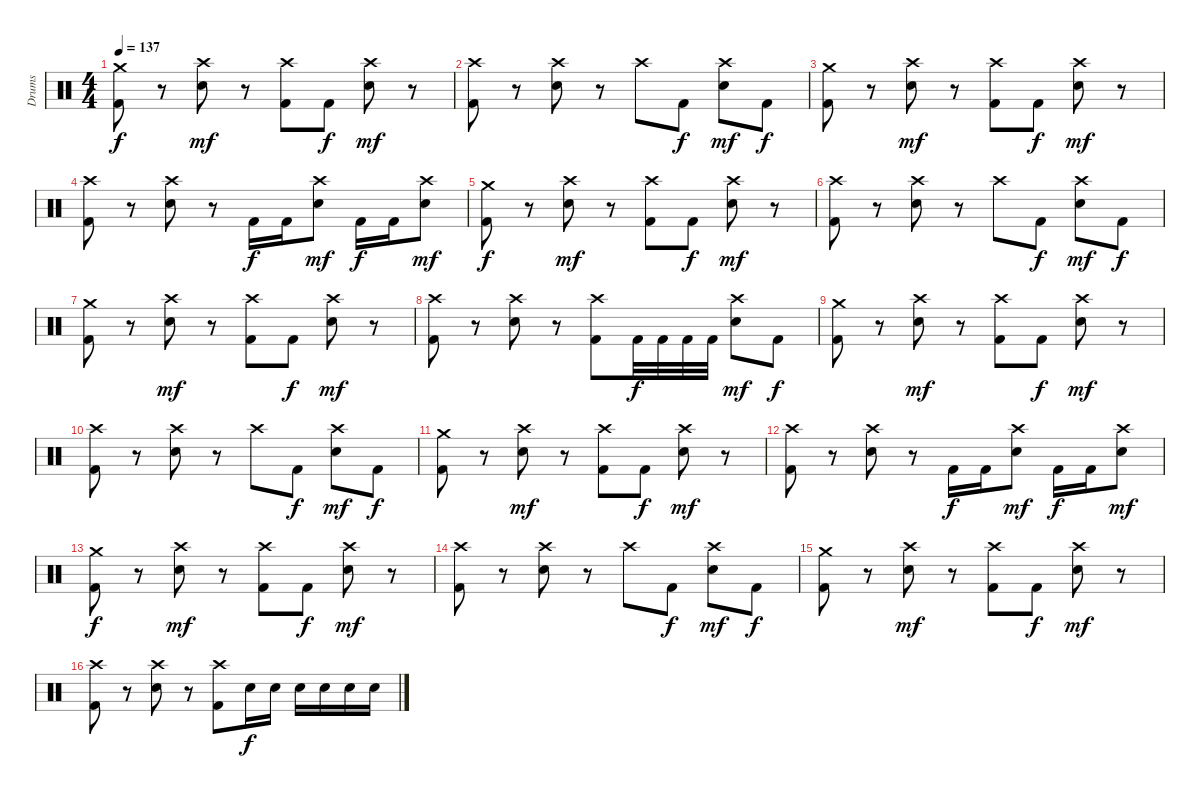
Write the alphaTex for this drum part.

\track ("Drums" "Drums") {instrument percussion}
\staff {score}
\articulation defaults
\ts (4 4)
\tempo 137
\clef neutral
\ks c
("Crash medium (hit)" "Kick (hit) 2").8{dy f} r.8 ("Crash high (hit)" "Snare (hit) 2").8{dy mf} r.8 ("Crash high (hit)" "Kick (hit) 2").8 "Kick (hit) 2".8{dy f} ("Crash high (hit)" "Snare (hit) 2").8{dy mf} r.8 |
("Crash high (hit)" "Kick (hit) 2").8 r.8 ("Crash high (hit)" "Snare (hit) 2").8 r.8 "Crash high (hit)".8 "Kick (hit) 2".8{dy f} ("Crash high (hit)" "Snare (hit) 2").8{dy mf} "Kick (hit) 2".8{dy f} |
("Crash medium (hit)" "Kick (hit) 2").8 r.8 ("Crash high (hit)" "Snare (hit) 2").8{dy mf} r.8 ("Crash high (hit)" "Kick (hit) 2").8 "Kick (hit) 2".8{dy f} ("Crash high (hit)" "Snare (hit) 2").8{dy mf} r.8 |
("Crash high (hit)" "Kick (hit) 2").8 r.8 ("Crash high (hit)" "Snare (hit) 2").8 r.8 "Kick (hit) 2".16{dy f} "Kick (hit) 2".16 ("Crash high (hit)" "Snare (hit) 2").8{dy mf} "Kick (hit) 2".16{dy f} "Kick (hit) 2".16 ("Crash high (hit)" "Snare (hit) 2").8{dy mf} |
("Crash medium (hit)" "Kick (hit) 2").8{dy f} r.8 ("Crash high (hit)" "Snare (hit) 2").8{dy mf} r.8 ("Crash high (hit)" "Kick (hit) 2").8 "Kick (hit) 2".8{dy f} ("Crash high (hit)" "Snare (hit) 2").8{dy mf} r.8 |
("Crash high (hit)" "Kick (hit) 2").8 r.8 ("Crash high (hit)" "Snare (hit) 2").8 r.8 "Crash high (hit)".8 "Kick (hit) 2".8{dy f} ("Crash high (hit)" "Snare (hit) 2").8{dy mf} "Kick (hit) 2".8{dy f} |
("Crash medium (hit)" "Kick (hit) 2").8 r.8 ("Crash high (hit)" "Snare (hit) 2").8{dy mf} r.8 ("Crash high (hit)" "Kick (hit) 2").8 "Kick (hit) 2".8{dy f} ("Crash high (hit)" "Snare (hit) 2").8{dy mf} r.8 |
("Crash high (hit)" "Kick (hit) 2").8 r.8 ("Crash high (hit)" "Snare (hit) 2").8 r.8 ("Crash high (hit)" "Kick (hit) 2").8 "Kick (hit) 2".32{dy f} "Kick (hit) 2".32 "Kick (hit) 2".32 "Kick (hit) 2".32 ("Crash high (hit)" "Snare (hit) 2").8{dy mf} "Kick (hit) 2".8{dy f} |
("Crash medium (hit)" "Kick (hit) 2").8 r.8 ("Crash high (hit)" "Snare (hit) 2").8{dy mf} r.8 ("Crash high (hit)" "Kick (hit) 2").8 "Kick (hit) 2".8{dy f} ("Crash high (hit)" "Snare (hit) 2").8{dy mf} r.8 |
("Crash high (hit)" "Kick (hit) 2").8 r.8 ("Crash high (hit)" "Snare (hit) 2").8 r.8 "Crash high (hit)".8 "Kick (hit) 2".8{dy f} ("Crash high (hit)" "Snare (hit) 2").8{dy mf} "Kick (hit) 2".8{dy f} |
("Crash medium (hit)" "Kick (hit) 2").8 r.8 ("Crash high (hit)" "Snare (hit) 2").8{dy mf} r.8 ("Crash high (hit)" "Kick (hit) 2").8 "Kick (hit) 2".8{dy f} ("Crash high (hit)" "Snare (hit) 2").8{dy mf} r.8 |
("Crash high (hit)" "Kick (hit) 2").8 r.8 ("Crash high (hit)" "Snare (hit) 2").8 r.8 "Kick (hit) 2".16{dy f} "Kick (hit) 2".16 ("Crash high (hit)" "Snare (hit) 2").8{dy mf} "Kick (hit) 2".16{dy f} "Kick (hit) 2".16 ("Crash high (hit)" "Snare (hit) 2").8{dy mf} |
("Crash medium (hit)" "Kick (hit) 2").8{dy f} r.8 ("Crash high (hit)" "Snare (hit) 2").8{dy mf} r.8 ("Crash high (hit)" "Kick (hit) 2").8 "Kick (hit) 2".8{dy f} ("Crash high (hit)" "Snare (hit) 2").8{dy mf} r.8 |
("Crash high (hit)" "Kick (hit) 2").8 r.8 ("Crash high (hit)" "Snare (hit) 2").8 r.8 "Crash high (hit)".8 "Kick (hit) 2".8{dy f} ("Crash high (hit)" "Snare (hit) 2").8{dy mf} "Kick (hit) 2".8{dy f} |
("Crash medium (hit)" "Kick (hit) 2").8 r.8 ("Crash high (hit)" "Snare (hit) 2").8{dy mf} r.8 ("Crash high (hit)" "Kick (hit) 2").8 "Kick (hit) 2".8{dy f} ("Crash high (hit)" "Snare (hit) 2").8{dy mf} r.8 |
("Crash high (hit)" "Kick (hit) 2").8 r.8 ("Crash high (hit)" "Snare (hit) 2").8 r.8 ("Crash high (hit)" "Kick (hit) 2").8 "Snare (hit) 2".16{dy f} "Snare (hit) 2".16 "Snare (hit) 2".16 "Snare (hit) 2".16 "Snare (hit) 2".16 "Snare (hit) 2".16
